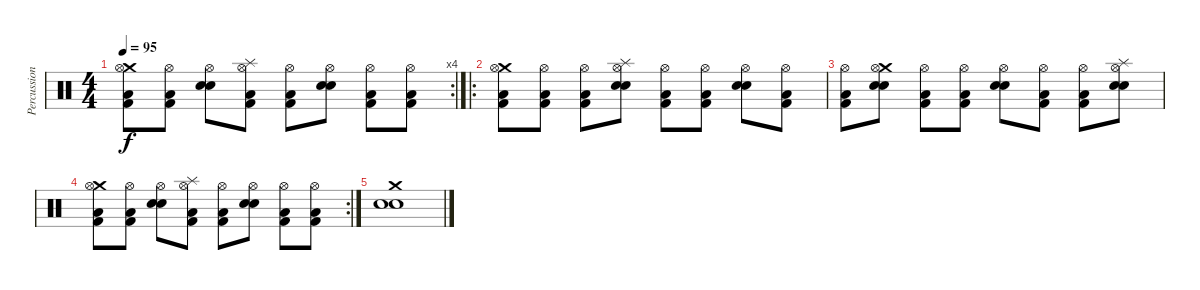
\track ("Percussions" "Percussion") {instrument percussion}
\staff {score}
\articulation defaults
\rc 4
\ts (4 4)
\tempo 95
\clef neutral
\ks c
("Crash medium (hit)" "Hi-Hat (open)" "Kick (hit) 2" "Low Floor Tom (hit)").8{dy f} ("Hi-Hat (open)" "Kick (hit) 2" "Low Floor Tom (hit)").8 ("Hi-Hat (open)" "Snare (hit) 2" "Electric Snare (hit)").8 ("Splash (hit)" "Hi-Hat (open)" "Kick (hit) 2" "Low Floor Tom (hit)").8 ("Hi-Hat (open)" "Kick (hit) 2" "Low Floor Tom (hit)").8 ("Hi-Hat (open)" "Snare (hit) 2" "Electric Snare (hit)").8 ("Hi-Hat (open)" "Kick (hit) 2" "Low Floor Tom (hit)").8 ("Hi-Hat (open)" "Kick (hit) 2" "Low Floor Tom (hit)").8 |
\ro
("Crash medium (hit)" "Hi-Hat (open)" "Kick (hit) 2" "Low Floor Tom (hit)").8 ("Hi-Hat (open)" "Kick (hit) 2" "Low Floor Tom (hit)").8 ("Hi-Hat (open)" "Kick (hit) 2" "Low Floor Tom (hit)").8 ("Splash (hit)" "Hi-Hat (open)" "Electric Snare (hit)" "Snare (hit) 2").8 ("Hi-Hat (open)" "Kick (hit) 2" "Low Floor Tom (hit)").8 ("Hi-Hat (open)" "Kick (hit) 2" "Low Floor Tom (hit)").8 ("Hi-Hat (open)" "Electric Snare (hit)" "Snare (hit) 2").8 ("Hi-Hat (open)" "Kick (hit) 2" "Low Floor Tom (hit)").8 |
("Hi-Hat (open)" "Kick (hit) 2" "Low Floor Tom (hit)").8 ("Crash medium (hit)" "Hi-Hat (open)" "Electric Snare (hit)" "Snare (hit) 2").8 ("Hi-Hat (open)" "Kick (hit) 2" "Low Floor Tom (hit)").8 ("Hi-Hat (open)" "Kick (hit) 2" "Low Floor Tom (hit)").8 ("Hi-Hat (open)" "Electric Snare (hit)" "Snare (hit) 2").8 ("Hi-Hat (open)" "Kick (hit) 2" "Low Floor Tom (hit)").8 ("Hi-Hat (open)" "Kick (hit) 2" "Low Floor Tom (hit)").8 ("Splash (hit)" "Hi-Hat (open)" "Electric Snare (hit)" "Snare (hit) 2").8 |
\rc 2
("Crash medium (hit)" "Hi-Hat (open)" "Kick (hit) 2" "Low Floor Tom (hit)").8 ("Hi-Hat (open)" "Kick (hit) 2" "Low Floor Tom (hit)").8 ("Hi-Hat (open)" "Snare (hit) 2" "Electric Snare (hit)").8 ("Splash (hit)" "Hi-Hat (open)" "Kick (hit) 2" "Low Floor Tom (hit)").8 ("Hi-Hat (open)" "Kick (hit) 2" "Low Floor Tom (hit)").8 ("Hi-Hat (open)" "Snare (hit) 2" "Electric Snare (hit)").8 ("Hi-Hat (open)" "Kick (hit) 2" "Low Floor Tom (hit)").8 ("Hi-Hat (open)" "Kick (hit) 2" "Low Floor Tom (hit)").8 |
("Crash medium (hit)" "Snare (hit) 2" "Electric Snare (hit)").1
